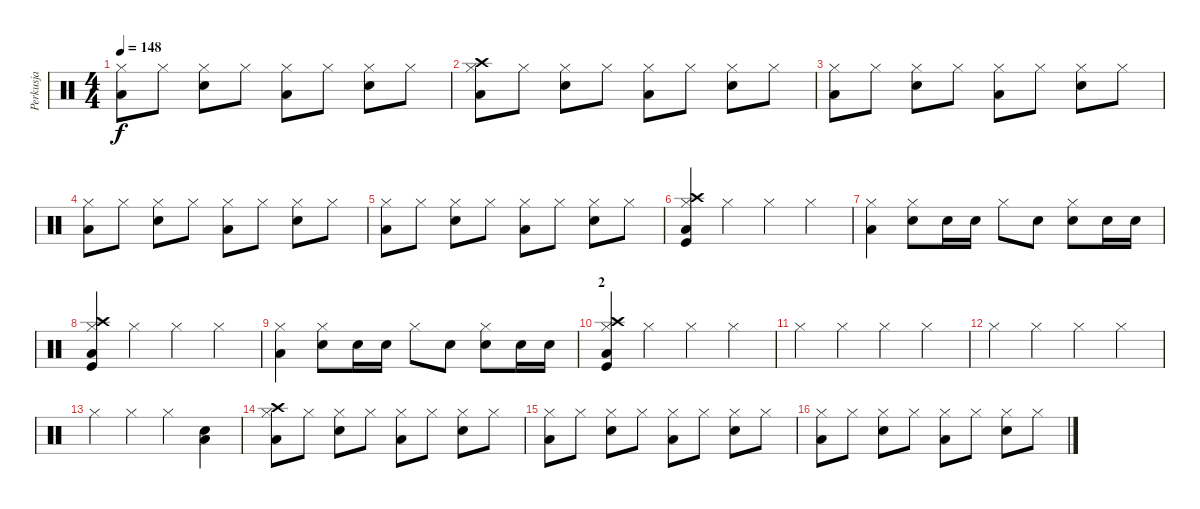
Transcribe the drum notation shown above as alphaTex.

\track ("Perkusja" "Perkusja") {instrument percussion}
\staff {score}
\articulation defaults
\ts (4 4)
\tempo 148
\clef neutral
\ks c
("Low Tom (hit)" "Hi-Hat (closed)").8{dy f} "Hi-Hat (closed)".8 ("Electric Snare (hit)" "Hi-Hat (closed)").8 "Hi-Hat (closed)".8 ("Low Tom (hit)" "Hi-Hat (closed)").8 "Hi-Hat (closed)".8 ("Electric Snare (hit)" "Hi-Hat (closed)").8 "Hi-Hat (closed)".8 |
("Crash high (hit)" "Low Tom (hit)" "Hi-Hat (closed)").8 "Hi-Hat (closed)".8 ("Electric Snare (hit)" "Hi-Hat (closed)").8 "Hi-Hat (closed)".8 ("Low Tom (hit)" "Hi-Hat (closed)").8 "Hi-Hat (closed)".8 ("Electric Snare (hit)" "Hi-Hat (closed)").8 "Hi-Hat (closed)".8 |
("Low Tom (hit)" "Hi-Hat (closed)").8 "Hi-Hat (closed)".8 ("Electric Snare (hit)" "Hi-Hat (closed)").8 "Hi-Hat (closed)".8 ("Low Tom (hit)" "Hi-Hat (closed)").8 "Hi-Hat (closed)".8 ("Electric Snare (hit)" "Hi-Hat (closed)").8 "Hi-Hat (closed)".8 |
("Low Tom (hit)" "Hi-Hat (closed)").8 "Hi-Hat (closed)".8 ("Electric Snare (hit)" "Hi-Hat (closed)").8 "Hi-Hat (closed)".8 ("Low Tom (hit)" "Hi-Hat (closed)").8 "Hi-Hat (closed)".8 ("Electric Snare (hit)" "Hi-Hat (closed)").8 "Hi-Hat (closed)".8 |
("Low Tom (hit)" "Hi-Hat (closed)").8 "Hi-Hat (closed)".8 ("Electric Snare (hit)" "Hi-Hat (closed)").8 "Hi-Hat (closed)".8 ("Low Tom (hit)" "Hi-Hat (closed)").8 "Hi-Hat (closed)".8 ("Electric Snare (hit)" "Hi-Hat (closed)").8 "Hi-Hat (closed)".8 |
("Crash high (hit)" "Low Tom (hit)" "Kick (hit)" "Hi-Hat (closed)").4 "Hi-Hat (closed)".4 "Hi-Hat (closed)".4 "Hi-Hat (closed)".4 |
("Low Tom (hit)" "Hi-Hat (closed)").4 ("Electric Snare (hit)" "Hi-Hat (closed)").8 "Electric Snare (hit)".16 "Electric Snare (hit)".16 "Hi-Hat (closed)".8 "Electric Snare (hit)".8 ("Electric Snare (hit)" "Hi-Hat (closed)").8 "Electric Snare (hit)".16 "Electric Snare (hit)".16 |
("Crash high (hit)" "Low Tom (hit)" "Kick (hit)" "Hi-Hat (closed)").4 "Hi-Hat (closed)".4 "Hi-Hat (closed)".4 "Hi-Hat (closed)".4 |
("Low Tom (hit)" "Hi-Hat (closed)").4 ("Electric Snare (hit)" "Hi-Hat (closed)").8 "Electric Snare (hit)".16 "Electric Snare (hit)".16 "Hi-Hat (closed)".8 "Electric Snare (hit)".8 ("Electric Snare (hit)" "Hi-Hat (closed)").8 "Electric Snare (hit)".16 "Electric Snare (hit)".16 |
\section ("" "2")
("Crash high (hit)" "Low Tom (hit)" "Kick (hit)" "Hi-Hat (closed)").4 "Hi-Hat (closed)".4 "Hi-Hat (closed)".4 "Hi-Hat (closed)".4 |
"Hi-Hat (closed)".4 "Hi-Hat (closed)".4 "Hi-Hat (closed)".4 "Hi-Hat (closed)".4 |
"Hi-Hat (closed)".4 "Hi-Hat (closed)".4 "Hi-Hat (closed)".4 "Hi-Hat (closed)".4 |
"Hi-Hat (closed)".4 "Hi-Hat (closed)".4 "Hi-Hat (closed)".4 ("Electric Snare (hit)" "Low Tom (hit)").4 |
("Crash high (hit)" "Low Tom (hit)" "Hi-Hat (closed)").8 "Hi-Hat (closed)".8 ("Electric Snare (hit)" "Hi-Hat (closed)").8 "Hi-Hat (closed)".8 ("Low Tom (hit)" "Hi-Hat (closed)").8 "Hi-Hat (closed)".8 ("Electric Snare (hit)" "Hi-Hat (closed)").8 "Hi-Hat (closed)".8 |
("Low Tom (hit)" "Hi-Hat (closed)").8 "Hi-Hat (closed)".8 ("Electric Snare (hit)" "Hi-Hat (closed)").8 "Hi-Hat (closed)".8 ("Low Tom (hit)" "Hi-Hat (closed)").8 "Hi-Hat (closed)".8 ("Electric Snare (hit)" "Hi-Hat (closed)").8 "Hi-Hat (closed)".8 |
("Low Tom (hit)" "Hi-Hat (closed)").8 "Hi-Hat (closed)".8 ("Electric Snare (hit)" "Hi-Hat (closed)").8 "Hi-Hat (closed)".8 ("Low Tom (hit)" "Hi-Hat (closed)").8 "Hi-Hat (closed)".8 ("Electric Snare (hit)" "Hi-Hat (closed)").8 "Hi-Hat (closed)".8
